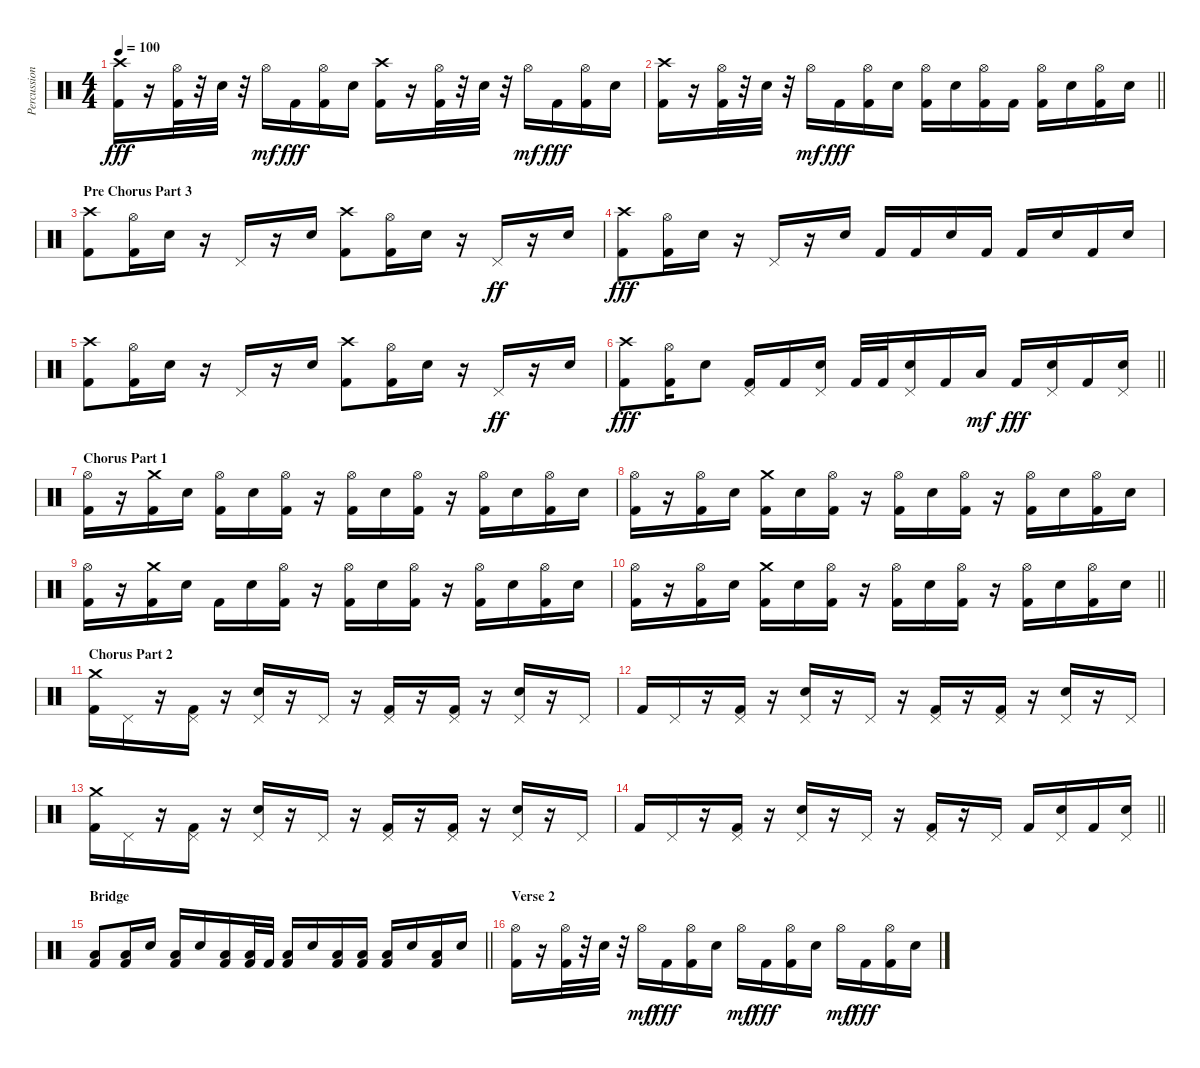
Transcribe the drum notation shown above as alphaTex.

\track ("Percussion" "Percussion") {instrument percussion}
\staff {score}
\articulation defaults
\ts (4 4)
\tempo 100
\clef neutral
\ks c
("Crash high (hit)" "Kick (hit) 2").16{dy fff} r.16 ("Hi-Hat (open)" "Kick (hit) 2").32 r.32 "Electric Snare (hit)".32 r.32 "Hi-Hat (open)".16{dy mf} "Kick (hit) 2".16{dy fff} ("Hi-Hat (open)" "Kick (hit) 2").16 "Electric Snare (hit)".16 ("Crash high (hit)" "Kick (hit) 2").16 r.16 ("Hi-Hat (open)" "Kick (hit) 2").32 r.32 "Electric Snare (hit)".32 r.32 "Hi-Hat (open)".16{dy mf} "Kick (hit) 2".16{dy fff} ("Hi-Hat (open)" "Kick (hit) 2").16 "Electric Snare (hit)".16 |
\barLineRight lightlight
("Crash high (hit)" "Kick (hit) 2").16 r.16 ("Hi-Hat (open)" "Kick (hit) 2").32 r.32 "Electric Snare (hit)".32 r.32 "Hi-Hat (open)".16{dy mf} "Kick (hit) 2".16{dy fff} ("Hi-Hat (open)" "Kick (hit) 2").16 "Electric Snare (hit)".16 ("Hi-Hat (open)" "Kick (hit) 2").16 "Electric Snare (hit)".16 ("Hi-Hat (open)" "Kick (hit) 2").16 "Kick (hit) 2".16 ("Hi-Hat (open)" "Kick (hit) 2").16 "Electric Snare (hit)".16 ("Hi-Hat (open)" "Kick (hit) 2").16 "Electric Snare (hit)".16 |
\section ("" "Pre Chorus Part 3")
("Crash high (hit)" "Kick (hit) 2").8 ("Hi-Hat (open)" "Kick (hit) 2").16 "Electric Snare (hit)".16 r.16 "Pedal Hi-Hat (hit)".16 r.16 "Electric Snare (hit)".16 ("Crash high (hit)" "Kick (hit) 2").8 ("Hi-Hat (open)" "Kick (hit) 2").16 "Electric Snare (hit)".16 r.16 "Pedal Hi-Hat (hit)".16{dy ff} r.16 "Electric Snare (hit)".16 |
("Crash high (hit)" "Kick (hit) 2").8{dy fff} ("Hi-Hat (open)" "Kick (hit) 2").16 "Electric Snare (hit)".16 r.16 "Pedal Hi-Hat (hit)".16 r.16 "Electric Snare (hit)".16 "Kick (hit) 2".16 "Kick (hit) 2".16 "Electric Snare (hit)".16 "Kick (hit) 2".16 "Kick (hit) 2".16 "Electric Snare (hit)".16 "Kick (hit) 2".16 "Electric Snare (hit)".16 |
("Crash high (hit)" "Kick (hit) 2").8 ("Hi-Hat (open)" "Kick (hit) 2").16 "Electric Snare (hit)".16 r.16 "Pedal Hi-Hat (hit)".16 r.16 "Electric Snare (hit)".16 ("Crash high (hit)" "Kick (hit) 2").8 ("Hi-Hat (open)" "Kick (hit) 2").16 "Electric Snare (hit)".16 r.16 "Pedal Hi-Hat (hit)".16{dy ff} r.16 "Electric Snare (hit)".16 |
\barLineRight lightlight
("Crash high (hit)" "Kick (hit) 2").8{dy fff} ("Hi-Hat (open)" "Kick (hit) 2").16 "Electric Snare (hit)".8 ("Pedal Hi-Hat (hit)" "Kick (hit) 2").16 "Kick (hit) 2".16 ("Pedal Hi-Hat (hit)" "Electric Snare (hit)").16 "Kick (hit) 2".32 "Kick (hit) 2".32 ("Pedal Hi-Hat (hit)" "Electric Snare (hit)").16 "Kick (hit) 2".16 "Low Floor Tom (hit)".16{dy mf} "Kick (hit) 2".16{dy fff} ("Pedal Hi-Hat (hit)" "Electric Snare (hit)").16 "Kick (hit) 2".16 ("Pedal Hi-Hat (hit)" "Electric Snare (hit)").16 |
\section ("" "Chorus Part 1")
("Hi-Hat (open)" "Kick (hit) 2").16 r.16 ("Crash medium (hit)" "Kick (hit) 2").16 "Electric Snare (hit)".16 ("Hi-Hat (open)" "Kick (hit) 2").16 "Electric Snare (hit)".16 ("Hi-Hat (open)" "Kick (hit) 2").16 r.16 ("Hi-Hat (open)" "Kick (hit) 2").16 "Electric Snare (hit)".16 ("Hi-Hat (open)" "Kick (hit) 2").16 r.16 ("Hi-Hat (open)" "Kick (hit) 2").16 "Electric Snare (hit)".16 ("Hi-Hat (open)" "Kick (hit) 2").16 "Electric Snare (hit)".16 |
("Hi-Hat (open)" "Kick (hit) 2").16 r.16 ("Hi-Hat (open)" "Kick (hit) 2").16 "Electric Snare (hit)".16 ("Crash medium (hit)" "Kick (hit) 2").16 "Electric Snare (hit)".16 ("Hi-Hat (open)" "Kick (hit) 2").16 r.16 ("Hi-Hat (open)" "Kick (hit) 2").16 "Electric Snare (hit)".16 ("Hi-Hat (open)" "Kick (hit) 2").16 r.16 ("Hi-Hat (open)" "Kick (hit) 2").16 "Electric Snare (hit)".16 ("Hi-Hat (open)" "Kick (hit) 2").16 "Electric Snare (hit)".16 |
("Hi-Hat (open)" "Kick (hit) 2").16 r.16 ("Crash medium (hit)" "Kick (hit) 2").16 "Electric Snare (hit)".16 "Kick (hit) 2".16 "Electric Snare (hit)".16 ("Hi-Hat (open)" "Kick (hit) 2").16 r.16 ("Hi-Hat (open)" "Kick (hit) 2").16 "Electric Snare (hit)".16 ("Hi-Hat (open)" "Kick (hit) 2").16 r.16 ("Hi-Hat (open)" "Kick (hit) 2").16 "Electric Snare (hit)".16 ("Hi-Hat (open)" "Kick (hit) 2").16 "Electric Snare (hit)".16 |
\barLineRight lightlight
("Hi-Hat (open)" "Kick (hit) 2").16 r.16 ("Hi-Hat (open)" "Kick (hit) 2").16 "Electric Snare (hit)".16 ("Crash medium (hit)" "Kick (hit) 2").16 "Electric Snare (hit)".16 ("Hi-Hat (open)" "Kick (hit) 2").16 r.16 ("Hi-Hat (open)" "Kick (hit) 2").16 "Electric Snare (hit)".16 ("Hi-Hat (open)" "Kick (hit) 2").16 r.16 ("Hi-Hat (open)" "Kick (hit) 2").16 "Electric Snare (hit)".16 ("Hi-Hat (open)" "Kick (hit) 2").16 "Electric Snare (hit)".16 |
\section ("" "Chorus Part 2")
("Crash medium (hit)" "Kick (hit) 2").16 "Pedal Hi-Hat (hit)".16 r.16 ("Pedal Hi-Hat (hit)" "Kick (hit) 2").16 r.16 ("Pedal Hi-Hat (hit)" "Electric Snare (hit)").16 r.16 "Pedal Hi-Hat (hit)".16 r.16 ("Pedal Hi-Hat (hit)" "Kick (hit) 2").16 r.16 ("Pedal Hi-Hat (hit)" "Kick (hit) 2").16 r.16 ("Pedal Hi-Hat (hit)" "Electric Snare (hit)").16 r.16 "Pedal Hi-Hat (hit)".16 |
"Kick (hit) 2".16 "Pedal Hi-Hat (hit)".16 r.16 ("Pedal Hi-Hat (hit)" "Kick (hit) 2").16 r.16 ("Pedal Hi-Hat (hit)" "Electric Snare (hit)").16 r.16 "Pedal Hi-Hat (hit)".16 r.16 ("Pedal Hi-Hat (hit)" "Kick (hit) 2").16 r.16 ("Pedal Hi-Hat (hit)" "Kick (hit) 2").16 r.16 ("Pedal Hi-Hat (hit)" "Electric Snare (hit)").16 r.16 "Pedal Hi-Hat (hit)".16 |
("Crash medium (hit)" "Kick (hit) 2").16 "Pedal Hi-Hat (hit)".16 r.16 ("Pedal Hi-Hat (hit)" "Kick (hit) 2").16 r.16 ("Pedal Hi-Hat (hit)" "Electric Snare (hit)").16 r.16 "Pedal Hi-Hat (hit)".16 r.16 ("Pedal Hi-Hat (hit)" "Kick (hit) 2").16 r.16 ("Pedal Hi-Hat (hit)" "Kick (hit) 2").16 r.16 ("Pedal Hi-Hat (hit)" "Electric Snare (hit)").16 r.16 "Pedal Hi-Hat (hit)".16 |
\barLineRight lightlight "Kick (hit) 2".16 "Pedal Hi-Hat (hit)".16
r.16 ("Pedal Hi-Hat (hit)" "Kick (hit) 2").16 r.16 ("Pedal Hi-Hat (hit)" "Electric Snare (hit)").16 r.16 "Pedal Hi-Hat (hit)".16 r.16 ("Pedal Hi-Hat (hit)" "Kick (hit) 2").16 r.16 "Pedal Hi-Hat (hit)".16 "Kick (hit) 2".16 ("Pedal Hi-Hat (hit)" "Electric Snare (hit)").16 "Kick (hit) 2".16 ("Pedal Hi-Hat (hit)" "Electric Snare (hit)").16 |
\section ("" "Bridge ")
\barLineRight lightlight
("Low Floor Tom (hit)" "Kick (hit) 2").8 ("Low Floor Tom (hit)" "Kick (hit) 2").16 "Electric Snare (hit)".16 ("Low Floor Tom (hit)" "Kick (hit) 2").16 "Electric Snare (hit)".16 ("Low Floor Tom (hit)" "Kick (hit) 2").16 ("Low Floor Tom (hit)" "Kick (hit) 2").32 "Kick (hit) 2".32 ("Low Floor Tom (hit)" "Kick (hit) 2").16 "Electric Snare (hit)".16 ("Low Floor Tom (hit)" "Kick (hit) 2").16 ("Low Floor Tom (hit)" "Kick (hit) 2").16 ("Low Floor Tom (hit)" "Kick (hit) 2").16 "Electric Snare (hit)".16 ("Low Floor Tom (hit)" "Kick (hit) 2").16 "Electric Snare (hit)".16 |
\section ("" "Verse 2")
("Hi-Hat (open)" "Kick (hit) 2").16 r.16 ("Hi-Hat (open)" "Kick (hit) 2").32 r.32 "Electric Snare (hit)".32 r.32 "Hi-Hat (open)".16{dy mf} "Kick (hit) 2".16{dy fff} ("Hi-Hat (open)" "Kick (hit) 2").16 "Electric Snare (hit)".16 "Hi-Hat (open)".16{dy mf} "Kick (hit) 2".16{dy fff} ("Hi-Hat (open)" "Kick (hit) 2").16 "Electric Snare (hit)".16 "Hi-Hat (open)".16{dy mf} "Kick (hit) 2".16{dy fff} ("Hi-Hat (open)" "Kick (hit) 2").16 "Electric Snare (hit)".16
